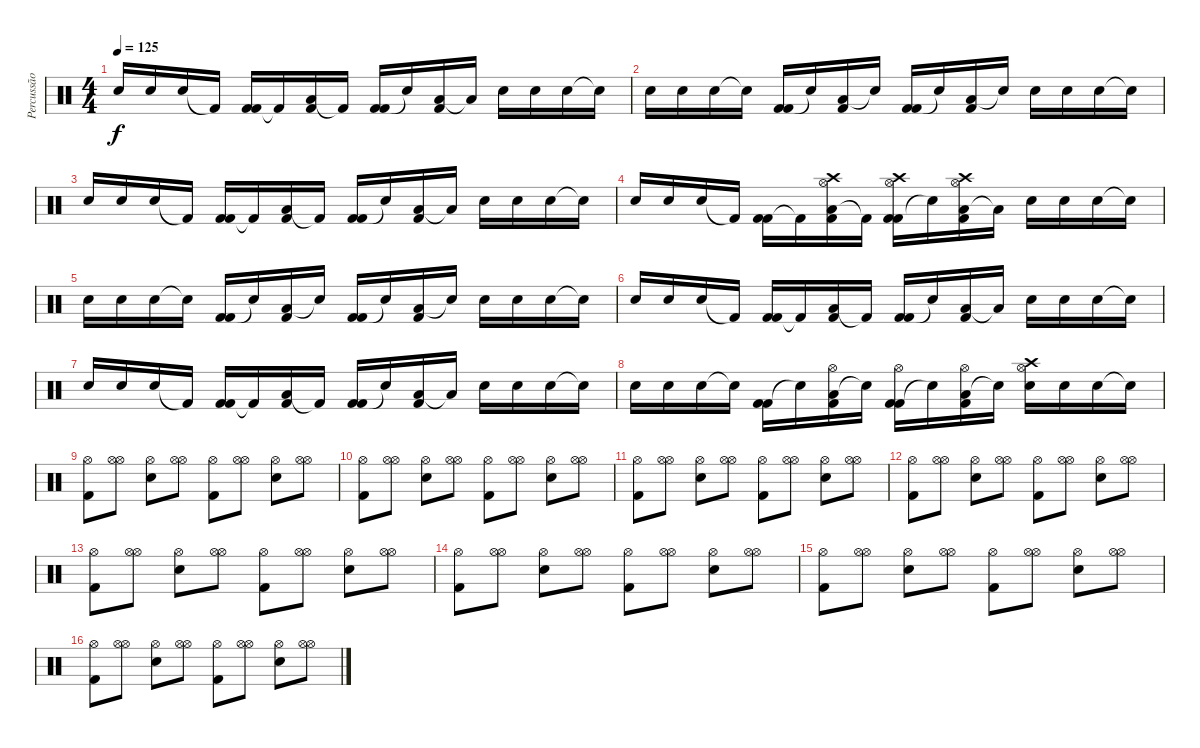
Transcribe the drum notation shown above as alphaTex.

\track ("Percussão" "Percussão") {instrument percussion}
\staff {score}
\articulation defaults
\ts (4 4)
\tempo 125
\clef neutral
\ks c "Electric Snare (hit)".16{dy f} "Electric Snare (hit)".16 "Electric Snare (hit)".16 "Kick (hit) 2"{t}.16
("Kick (hit) 2" "Kick (hit) 2").16 "Kick (hit) 2"{t}.16 ("Low Floor Tom (hit)" "Kick (hit) 2").16 "Kick (hit) 2"{t}.16 ("Kick (hit) 2" "Kick (hit) 2").16 "Snare (hit)"{t}.16 ("Low Floor Tom (hit)" "Kick (hit) 2").16 "Low Floor Tom (hit)"{t}.16 "Electric Snare (hit)".16 "Electric Snare (hit)".16 "Electric Snare (hit)".16 "Snare (hit)"{t}.16 |
"Electric Snare (hit)".16 "Electric Snare (hit)".16 "Electric Snare (hit)".16 "Snare (hit)"{t}.16 ("Kick (hit) 2" "Kick (hit) 2").16 "Snare (hit)"{t}.16 ("Low Floor Tom (hit)" "Kick (hit) 2").16 "Snare (hit)"{t}.16 ("Kick (hit) 2" "Kick (hit) 2").16 "Snare (hit)"{t}.16 ("Low Floor Tom (hit)" "Kick (hit) 2").16 "Snare (hit)"{t}.16 "Electric Snare (hit)".16 "Electric Snare (hit)".16 "Electric Snare (hit)".16 "Snare (hit)"{t}.16 |
"Electric Snare (hit)".16 "Electric Snare (hit)".16 "Electric Snare (hit)".16 "Kick (hit) 2"{t}.16 ("Kick (hit) 2" "Kick (hit) 2").16 "Kick (hit) 2"{t}.16 ("Low Floor Tom (hit)" "Kick (hit) 2").16 "Kick (hit) 2"{t}.16 ("Kick (hit) 2" "Kick (hit) 2").16 "Snare (hit)"{t}.16 ("Low Floor Tom (hit)" "Kick (hit) 2").16 "Low Floor Tom (hit)"{t}.16 "Electric Snare (hit)".16 "Electric Snare (hit)".16 "Electric Snare (hit)".16 "Snare (hit)"{t}.16 |
"Electric Snare (hit)".16 "Electric Snare (hit)".16 "Electric Snare (hit)".16 "Kick (hit) 2"{t}.16 ("Kick (hit) 2" "Kick (hit) 2").16 "Kick (hit) 2"{t}.16 ("Low Floor Tom (hit)" "Kick (hit) 2" "Hi-Hat (open)" "Crash high (hit)").16 "Kick (hit) 2"{t}.16 ("Kick (hit) 2" "Kick (hit) 2" "Hi-Hat (open)" "Crash high (hit)").16 "Snare (hit)"{t}.16 ("Low Floor Tom (hit)" "Kick (hit) 2" "Hi-Hat (open)" "Crash high (hit)").16 "Low Floor Tom (hit)"{t}.16 "Electric Snare (hit)".16 "Electric Snare (hit)".16 "Electric Snare (hit)".16 "Snare (hit)"{t}.16 |
"Electric Snare (hit)".16 "Electric Snare (hit)".16 "Electric Snare (hit)".16 "Snare (hit)"{t}.16 ("Kick (hit) 2" "Kick (hit) 2").16 "Snare (hit)"{t}.16 ("Low Floor Tom (hit)" "Kick (hit) 2").16 "Snare (hit)"{t}.16 ("Kick (hit) 2" "Kick (hit) 2").16 "Snare (hit)"{t}.16 ("Low Floor Tom (hit)" "Kick (hit) 2").16 "Snare (hit)"{t}.16 "Electric Snare (hit)".16 "Electric Snare (hit)".16 "Electric Snare (hit)".16 "Snare (hit)"{t}.16 |
"Electric Snare (hit)".16 "Electric Snare (hit)".16 "Electric Snare (hit)".16 "Kick (hit) 2"{t}.16 ("Kick (hit) 2" "Kick (hit) 2").16 "Kick (hit) 2"{t}.16 ("Low Floor Tom (hit)" "Kick (hit) 2").16 "Kick (hit) 2"{t}.16 ("Kick (hit) 2" "Kick (hit) 2").16 "Snare (hit)"{t}.16 ("Low Floor Tom (hit)" "Kick (hit) 2").16 "Low Floor Tom (hit)"{t}.16 "Electric Snare (hit)".16 "Electric Snare (hit)".16 "Electric Snare (hit)".16 "Snare (hit)"{t}.16 |
"Electric Snare (hit)".16 "Electric Snare (hit)".16 "Electric Snare (hit)".16 "Kick (hit) 2"{t}.16 ("Kick (hit) 2" "Kick (hit) 2").16 "Kick (hit) 2"{t}.16 ("Low Floor Tom (hit)" "Kick (hit) 2").16 "Kick (hit) 2"{t}.16 ("Kick (hit) 2" "Kick (hit) 2").16 "Snare (hit)"{t}.16 ("Low Floor Tom (hit)" "Kick (hit) 2").16 "Low Floor Tom (hit)"{t}.16 "Electric Snare (hit)".16 "Electric Snare (hit)".16 "Electric Snare (hit)".16 "Snare (hit)"{t}.16 |
"Electric Snare (hit)".16 "Electric Snare (hit)".16 "Electric Snare (hit)".16 "Snare (hit)"{t}.16 ("Kick (hit) 2" "Kick (hit) 2").16 "Snare (hit)"{t}.16 ("Low Floor Tom (hit)" "Kick (hit) 2" "Hi-Hat (open)").16 "Snare (hit)"{t}.16 ("Kick (hit) 2" "Kick (hit) 2" "Hi-Hat (open)").16 "Snare (hit)"{t}.16 ("Low Floor Tom (hit)" "Kick (hit) 2" "Hi-Hat (open)").16 "Snare (hit)"{t}.16 ("Electric Snare (hit)" "Crash high (hit)" "Hi-Hat (open)").16 "Electric Snare (hit)".16 "Electric Snare (hit)".16 "Snare (hit)"{t}.16 |
("Kick (hit) 2" "Hi-Hat (open)").8 ("Hi-Hat (open)" "Hi-Hat (open)").8 ("Electric Snare (hit)" "Hi-Hat (open)").8 ("Hi-Hat (open)" "Hi-Hat (open)").8 ("Kick (hit) 2" "Hi-Hat (open)").8 ("Hi-Hat (open)" "Hi-Hat (open)").8 ("Electric Snare (hit)" "Hi-Hat (open)").8 ("Hi-Hat (open)" "Hi-Hat (open)").8 |
("Kick (hit) 2" "Hi-Hat (open)").8 ("Hi-Hat (open)" "Hi-Hat (open)").8 ("Electric Snare (hit)" "Hi-Hat (open)").8 ("Hi-Hat (open)" "Hi-Hat (open)").8 ("Kick (hit) 2" "Hi-Hat (open)").8 ("Hi-Hat (open)" "Hi-Hat (open)").8 ("Electric Snare (hit)" "Hi-Hat (open)").8 ("Hi-Hat (open)" "Hi-Hat (open)").8 |
("Kick (hit) 2" "Hi-Hat (open)").8 ("Hi-Hat (open)" "Hi-Hat (open)").8 ("Electric Snare (hit)" "Hi-Hat (open)").8 ("Hi-Hat (open)" "Hi-Hat (open)").8 ("Kick (hit) 2" "Hi-Hat (open)").8 ("Hi-Hat (open)" "Hi-Hat (open)").8 ("Electric Snare (hit)" "Hi-Hat (open)").8 ("Hi-Hat (open)" "Hi-Hat (open)").8 |
("Kick (hit) 2" "Hi-Hat (open)").8 ("Hi-Hat (open)" "Hi-Hat (open)").8 ("Electric Snare (hit)" "Hi-Hat (open)").8 ("Hi-Hat (open)" "Hi-Hat (open)").8 ("Kick (hit) 2" "Hi-Hat (open)").8 ("Hi-Hat (open)" "Hi-Hat (open)").8 ("Electric Snare (hit)" "Hi-Hat (open)").8 ("Hi-Hat (open)" "Hi-Hat (open)").8 |
("Kick (hit) 2" "Hi-Hat (open)").8 ("Hi-Hat (open)" "Hi-Hat (open)").8 ("Electric Snare (hit)" "Hi-Hat (open)").8 ("Hi-Hat (open)" "Hi-Hat (open)").8 ("Kick (hit) 2" "Hi-Hat (open)").8 ("Hi-Hat (open)" "Hi-Hat (open)").8 ("Electric Snare (hit)" "Hi-Hat (open)").8 ("Hi-Hat (open)" "Hi-Hat (open)").8 |
("Kick (hit) 2" "Hi-Hat (open)").8 ("Hi-Hat (open)" "Hi-Hat (open)").8 ("Electric Snare (hit)" "Hi-Hat (open)").8 ("Hi-Hat (open)" "Hi-Hat (open)").8 ("Kick (hit) 2" "Hi-Hat (open)").8 ("Hi-Hat (open)" "Hi-Hat (open)").8 ("Electric Snare (hit)" "Hi-Hat (open)").8 ("Hi-Hat (open)" "Hi-Hat (open)").8 |
("Kick (hit) 2" "Hi-Hat (open)").8 ("Hi-Hat (open)" "Hi-Hat (open)").8 ("Electric Snare (hit)" "Hi-Hat (open)").8 ("Hi-Hat (open)" "Hi-Hat (open)").8 ("Kick (hit) 2" "Hi-Hat (open)").8 ("Hi-Hat (open)" "Hi-Hat (open)").8 ("Electric Snare (hit)" "Hi-Hat (open)").8 ("Hi-Hat (open)" "Hi-Hat (open)").8 |
("Kick (hit) 2" "Hi-Hat (open)").8 ("Hi-Hat (open)" "Hi-Hat (open)").8 ("Electric Snare (hit)" "Hi-Hat (open)").8 ("Hi-Hat (open)" "Hi-Hat (open)").8 ("Kick (hit) 2" "Hi-Hat (open)").8 ("Hi-Hat (open)" "Hi-Hat (open)").8 ("Electric Snare (hit)" "Hi-Hat (open)").8 ("Hi-Hat (open)" "Hi-Hat (open)").8
